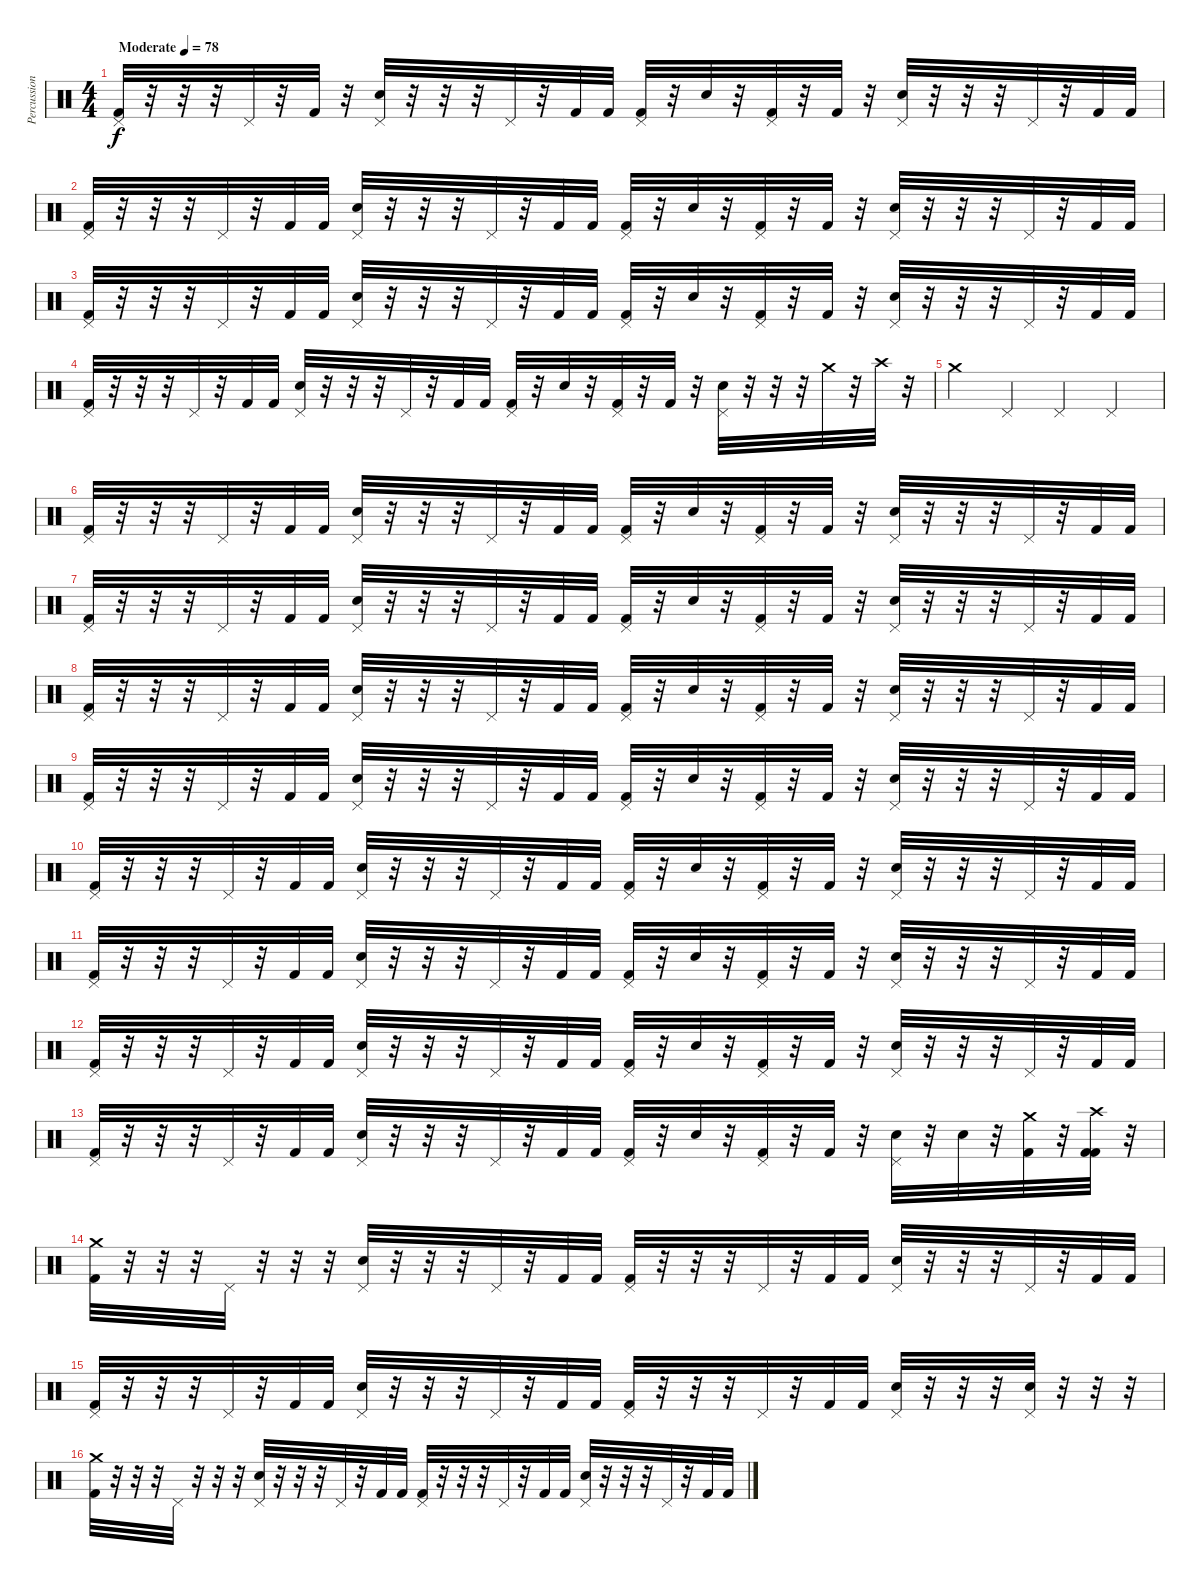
\track ("Percussion" "Percussion") {instrument percussion}
\staff {score}
\articulation defaults
\ts (4 4)
\tempo (78 "Moderate")
\clef neutral
\ks c
("Pedal Hi-Hat (hit)" "Kick (hit) 2").32{dy f} r.32 r.32 r.32 "Pedal Hi-Hat (hit)".32 r.32 "Kick (hit) 2".32 r.32 ("Pedal Hi-Hat (hit)" "Electric Snare (hit)").32 r.32 r.32 r.32 "Pedal Hi-Hat (hit)".32 r.32 "Kick (hit) 2".32 "Kick (hit) 2".32 ("Pedal Hi-Hat (hit)" "Kick (hit) 2").32 r.32 "Electric Snare (hit)".32 r.32 ("Pedal Hi-Hat (hit)" "Kick (hit) 2").32 r.32 "Kick (hit) 2".32 r.32 ("Pedal Hi-Hat (hit)" "Electric Snare (hit)").32 r.32 r.32 r.32 "Pedal Hi-Hat (hit)".32 r.32 "Kick (hit) 2".32 "Kick (hit) 2".32 |
("Pedal Hi-Hat (hit)" "Kick (hit) 2").32 r.32 r.32 r.32 "Pedal Hi-Hat (hit)".32 r.32 "Kick (hit) 2".32 "Kick (hit) 2".32 ("Pedal Hi-Hat (hit)" "Electric Snare (hit)").32 r.32 r.32 r.32 "Pedal Hi-Hat (hit)".32 r.32 "Kick (hit) 2".32 "Kick (hit) 2".32 ("Pedal Hi-Hat (hit)" "Kick (hit) 2").32 r.32 "Electric Snare (hit)".32 r.32 ("Pedal Hi-Hat (hit)" "Kick (hit) 2").32 r.32 "Kick (hit) 2".32 r.32 ("Pedal Hi-Hat (hit)" "Electric Snare (hit)").32 r.32 r.32 r.32 "Pedal Hi-Hat (hit)".32 r.32 "Kick (hit) 2".32 "Kick (hit) 2".32 |
("Pedal Hi-Hat (hit)" "Kick (hit) 2").32 r.32 r.32 r.32 "Pedal Hi-Hat (hit)".32 r.32 "Kick (hit) 2".32 "Kick (hit) 2".32 ("Pedal Hi-Hat (hit)" "Electric Snare (hit)").32 r.32 r.32 r.32 "Pedal Hi-Hat (hit)".32 r.32 "Kick (hit) 2".32 "Kick (hit) 2".32 ("Pedal Hi-Hat (hit)" "Kick (hit) 2").32 r.32 "Electric Snare (hit)".32 r.32 ("Pedal Hi-Hat (hit)" "Kick (hit) 2").32 r.32 "Kick (hit) 2".32 r.32 ("Pedal Hi-Hat (hit)" "Electric Snare (hit)").32 r.32 r.32 r.32 "Pedal Hi-Hat (hit)".32 r.32 "Kick (hit) 2".32 "Kick (hit) 2".32 |
("Pedal Hi-Hat (hit)" "Kick (hit) 2").32 r.32 r.32 r.32 "Pedal Hi-Hat (hit)".32 r.32 "Kick (hit) 2".32 "Kick (hit) 2".32 ("Pedal Hi-Hat (hit)" "Electric Snare (hit)").32 r.32 r.32 r.32 "Pedal Hi-Hat (hit)".32 r.32 "Kick (hit) 2".32 "Kick (hit) 2".32 ("Pedal Hi-Hat (hit)" "Kick (hit) 2").32 r.32 "Electric Snare (hit)".32 r.32 ("Pedal Hi-Hat (hit)" "Kick (hit) 2").32 r.32 "Kick (hit) 2".32 r.32 ("Pedal Hi-Hat (hit)" "Electric Snare (hit)").32 r.32 r.32 r.32 "Crash medium (hit)".32 r.32 "Crash high (hit)".32 r.32 |
"Crash medium (hit)".4 "Pedal Hi-Hat (hit)".4 "Pedal Hi-Hat (hit)".4 "Pedal Hi-Hat (hit)".4 |
("Pedal Hi-Hat (hit)" "Kick (hit) 2").32 r.32 r.32 r.32 "Pedal Hi-Hat (hit)".32 r.32 "Kick (hit) 2".32 "Kick (hit) 2".32 ("Pedal Hi-Hat (hit)" "Electric Snare (hit)").32 r.32 r.32 r.32 "Pedal Hi-Hat (hit)".32 r.32 "Kick (hit) 2".32 "Kick (hit) 2".32 ("Pedal Hi-Hat (hit)" "Kick (hit) 2").32 r.32 "Electric Snare (hit)".32 r.32 ("Pedal Hi-Hat (hit)" "Kick (hit) 2").32 r.32 "Kick (hit) 2".32 r.32 ("Pedal Hi-Hat (hit)" "Electric Snare (hit)").32 r.32 r.32 r.32 "Pedal Hi-Hat (hit)".32 r.32 "Kick (hit) 2".32 "Kick (hit) 2".32 |
("Pedal Hi-Hat (hit)" "Kick (hit) 2").32 r.32 r.32 r.32 "Pedal Hi-Hat (hit)".32 r.32 "Kick (hit) 2".32 "Kick (hit) 2".32 ("Pedal Hi-Hat (hit)" "Electric Snare (hit)").32 r.32 r.32 r.32 "Pedal Hi-Hat (hit)".32 r.32 "Kick (hit) 2".32 "Kick (hit) 2".32 ("Pedal Hi-Hat (hit)" "Kick (hit) 2").32 r.32 "Electric Snare (hit)".32 r.32 ("Pedal Hi-Hat (hit)" "Kick (hit) 2").32 r.32 "Kick (hit) 2".32 r.32 ("Pedal Hi-Hat (hit)" "Electric Snare (hit)").32 r.32 r.32 r.32 "Pedal Hi-Hat (hit)".32 r.32 "Kick (hit) 2".32 "Kick (hit) 2".32 |
("Pedal Hi-Hat (hit)" "Kick (hit) 2").32 r.32 r.32 r.32 "Pedal Hi-Hat (hit)".32 r.32 "Kick (hit) 2".32 "Kick (hit) 2".32 ("Pedal Hi-Hat (hit)" "Electric Snare (hit)").32 r.32 r.32 r.32 "Pedal Hi-Hat (hit)".32 r.32 "Kick (hit) 2".32 "Kick (hit) 2".32 ("Pedal Hi-Hat (hit)" "Kick (hit) 2").32 r.32 "Electric Snare (hit)".32 r.32 ("Pedal Hi-Hat (hit)" "Kick (hit) 2").32 r.32 "Kick (hit) 2".32 r.32 ("Pedal Hi-Hat (hit)" "Electric Snare (hit)").32 r.32 r.32 r.32 "Pedal Hi-Hat (hit)".32 r.32 "Kick (hit) 2".32 "Kick (hit) 2".32 |
("Pedal Hi-Hat (hit)" "Kick (hit) 2").32 r.32 r.32 r.32 "Pedal Hi-Hat (hit)".32 r.32 "Kick (hit) 2".32 "Kick (hit) 2".32 ("Pedal Hi-Hat (hit)" "Electric Snare (hit)").32 r.32 r.32 r.32 "Pedal Hi-Hat (hit)".32 r.32 "Kick (hit) 2".32 "Kick (hit) 2".32 ("Pedal Hi-Hat (hit)" "Kick (hit) 2").32 r.32 "Electric Snare (hit)".32 r.32 ("Pedal Hi-Hat (hit)" "Kick (hit) 2").32 r.32 "Kick (hit) 2".32 r.32 ("Pedal Hi-Hat (hit)" "Electric Snare (hit)").32 r.32 r.32 r.32 "Pedal Hi-Hat (hit)".32 r.32 "Kick (hit) 2".32 "Kick (hit) 2".32 |
("Pedal Hi-Hat (hit)" "Kick (hit) 2").32 r.32 r.32 r.32 "Pedal Hi-Hat (hit)".32 r.32 "Kick (hit) 2".32 "Kick (hit) 2".32 ("Pedal Hi-Hat (hit)" "Electric Snare (hit)").32 r.32 r.32 r.32 "Pedal Hi-Hat (hit)".32 r.32 "Kick (hit) 2".32 "Kick (hit) 2".32 ("Pedal Hi-Hat (hit)" "Kick (hit) 2").32 r.32 "Electric Snare (hit)".32 r.32 ("Pedal Hi-Hat (hit)" "Kick (hit) 2").32 r.32 "Kick (hit) 2".32 r.32 ("Pedal Hi-Hat (hit)" "Electric Snare (hit)").32 r.32 r.32 r.32 "Pedal Hi-Hat (hit)".32 r.32 "Kick (hit) 2".32 "Kick (hit) 2".32 |
("Pedal Hi-Hat (hit)" "Kick (hit) 2").32 r.32 r.32 r.32 "Pedal Hi-Hat (hit)".32 r.32 "Kick (hit) 2".32 "Kick (hit) 2".32 ("Pedal Hi-Hat (hit)" "Electric Snare (hit)").32 r.32 r.32 r.32 "Pedal Hi-Hat (hit)".32 r.32 "Kick (hit) 2".32 "Kick (hit) 2".32 ("Pedal Hi-Hat (hit)" "Kick (hit) 2").32 r.32 "Electric Snare (hit)".32 r.32 ("Pedal Hi-Hat (hit)" "Kick (hit) 2").32 r.32 "Kick (hit) 2".32 r.32 ("Pedal Hi-Hat (hit)" "Electric Snare (hit)").32 r.32 r.32 r.32 "Pedal Hi-Hat (hit)".32 r.32 "Kick (hit) 2".32 "Kick (hit) 2".32 |
("Pedal Hi-Hat (hit)" "Kick (hit) 2").32 r.32 r.32 r.32 "Pedal Hi-Hat (hit)".32 r.32 "Kick (hit) 2".32 "Kick (hit) 2".32 ("Pedal Hi-Hat (hit)" "Electric Snare (hit)").32 r.32 r.32 r.32 "Pedal Hi-Hat (hit)".32 r.32 "Kick (hit) 2".32 "Kick (hit) 2".32 ("Pedal Hi-Hat (hit)" "Kick (hit) 2").32 r.32 "Electric Snare (hit)".32 r.32 ("Pedal Hi-Hat (hit)" "Kick (hit) 2").32 r.32 "Kick (hit) 2".32 r.32 ("Pedal Hi-Hat (hit)" "Electric Snare (hit)").32 r.32 r.32 r.32 "Pedal Hi-Hat (hit)".32 r.32 "Kick (hit) 2".32 "Kick (hit) 2".32 |
("Pedal Hi-Hat (hit)" "Kick (hit) 2").32 r.32 r.32 r.32 "Pedal Hi-Hat (hit)".32 r.32 "Kick (hit) 2".32 "Kick (hit) 2".32 ("Pedal Hi-Hat (hit)" "Electric Snare (hit)").32 r.32 r.32 r.32 "Pedal Hi-Hat (hit)".32 r.32 "Kick (hit) 2".32 "Kick (hit) 2".32 ("Pedal Hi-Hat (hit)" "Kick (hit) 2").32 r.32 "Electric Snare (hit)".32 r.32 ("Pedal Hi-Hat (hit)" "Kick (hit) 2").32 r.32 "Kick (hit) 2".32 r.32 ("Pedal Hi-Hat (hit)" "Electric Snare (hit)").32 r.32 "Electric Snare (hit)".32 r.32 ("Crash medium (hit)" "Kick (hit) 2").32 r.32 ("Crash high (hit)" "Kick (hit) 2" "Kick (hit) 2").32 r.32 |
("Crash medium (hit)" "Kick (hit) 2").32 r.32 r.32 r.32 "Pedal Hi-Hat (hit)".32 r.32 r.32 r.32 ("Pedal Hi-Hat (hit)" "Electric Snare (hit)").32 r.32 r.32 r.32 "Pedal Hi-Hat (hit)".32 r.32 "Kick (hit) 2".32 "Kick (hit) 2".32 ("Pedal Hi-Hat (hit)" "Kick (hit) 2").32 r.32 r.32 r.32 "Pedal Hi-Hat (hit)".32 r.32 "Kick (hit) 2".32 "Kick (hit) 2".32 ("Pedal Hi-Hat (hit)" "Electric Snare (hit)").32 r.32 r.32 r.32 "Pedal Hi-Hat (hit)".32 r.32 "Kick (hit) 2".32 "Kick (hit) 2".32 |
("Pedal Hi-Hat (hit)" "Kick (hit) 2").32 r.32 r.32 r.32 "Pedal Hi-Hat (hit)".32 r.32 "Kick (hit) 2".32 "Kick (hit) 2".32 ("Pedal Hi-Hat (hit)" "Electric Snare (hit)").32 r.32 r.32 r.32 "Pedal Hi-Hat (hit)".32 r.32 "Kick (hit) 2".32 "Kick (hit) 2".32 ("Pedal Hi-Hat (hit)" "Kick (hit) 2").32 r.32 r.32 r.32 "Pedal Hi-Hat (hit)".32 r.32 "Kick (hit) 2".32 "Kick (hit) 2".32 ("Pedal Hi-Hat (hit)" "Electric Snare (hit)").32 r.32 r.32 r.32 ("Pedal Hi-Hat (hit)" "Electric Snare (hit)").32 r.32 r.32 r.32 |
("Crash medium (hit)" "Kick (hit) 2").32 r.32 r.32 r.32 "Pedal Hi-Hat (hit)".32 r.32 r.32 r.32 ("Pedal Hi-Hat (hit)" "Electric Snare (hit)").32 r.32 r.32 r.32 "Pedal Hi-Hat (hit)".32 r.32 "Kick (hit) 2".32 "Kick (hit) 2".32 ("Pedal Hi-Hat (hit)" "Kick (hit) 2").32 r.32 r.32 r.32 "Pedal Hi-Hat (hit)".32 r.32 "Kick (hit) 2".32 "Kick (hit) 2".32 ("Pedal Hi-Hat (hit)" "Electric Snare (hit)").32 r.32 r.32 r.32 "Pedal Hi-Hat (hit)".32 r.32 "Kick (hit) 2".32 "Kick (hit) 2".32
